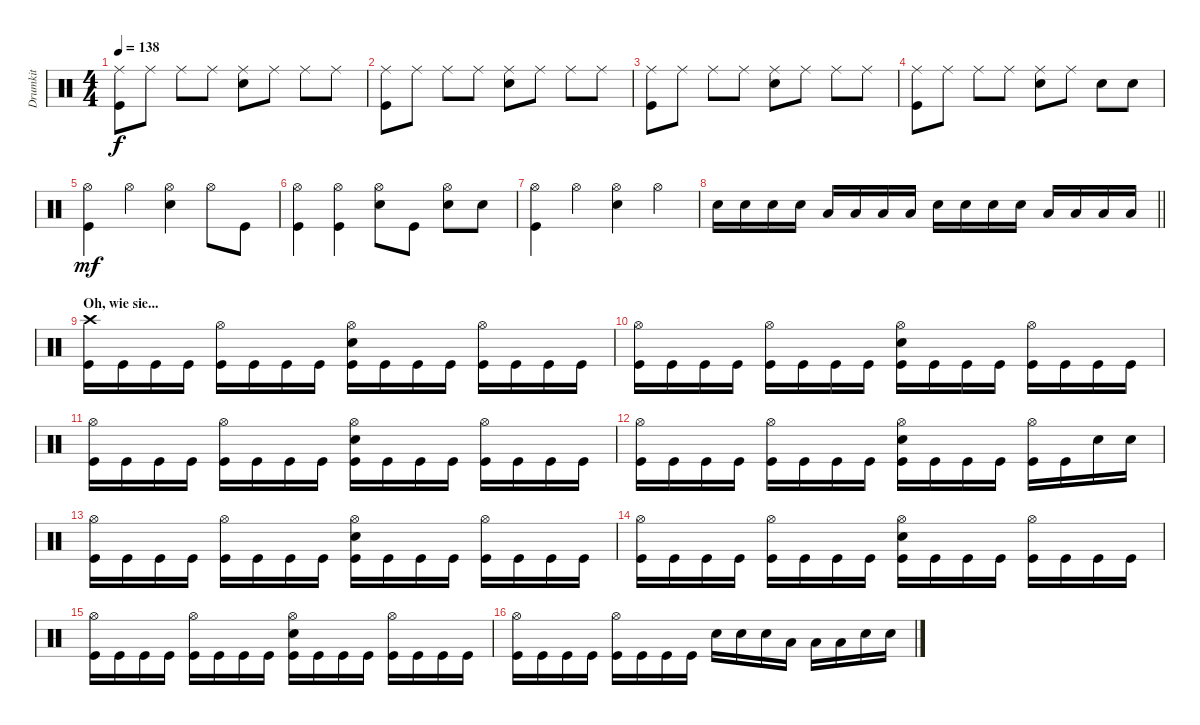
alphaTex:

\track ("Drumkit" "Drumkit") {instrument percussion}
\staff {score}
\articulation defaults
\ts (4 4)
\tempo 138
\clef neutral
\ks c
("Ride (middle)" "Kick (hit)").8{dy f} "Ride (middle)".8 "Ride (middle)".8 "Ride (middle)".8 ("Ride (middle)" "Snare (hit) 2").8 "Ride (middle)".8 "Ride (middle)".8 "Ride (middle)".8 |
("Ride (middle)" "Kick (hit)").8 "Ride (middle)".8 "Ride (middle)".8 "Ride (middle)".8 ("Ride (middle)" "Snare (hit) 2").8 "Ride (middle)".8 "Ride (middle)".8 "Ride (middle)".8 |
("Ride (middle)" "Kick (hit)").8 "Ride (middle)".8 "Ride (middle)".8 "Ride (middle)".8 ("Ride (middle)" "Snare (hit) 2").8 "Ride (middle)".8 "Ride (middle)".8 "Ride (middle)".8 |
("Ride (middle)" "Kick (hit)").8 "Ride (middle)".8 "Ride (middle)".8 "Ride (middle)".8 ("Ride (middle)" "Snare (hit) 2").8 "Ride (middle)".8 "Snare (hit) 2".8 "Snare (hit) 2".8 |
("Hi-Hat (open)" "Kick (hit)").4{dy mf} "Hi-Hat (open)".4 ("Hi-Hat (open)" "Snare (hit) 2").4 "Hi-Hat (open)".8 "Kick (hit)".8 |
("Hi-Hat (open)" "Kick (hit)").4 ("Hi-Hat (open)" "Kick (hit)").4 ("Hi-Hat (open)" "Snare (hit) 2").8 "Kick (hit)".8 ("Hi-Hat (open)" "Snare (hit) 2").8 "Snare (hit) 2".8 |
("Hi-Hat (open)" "Kick (hit)").4 "Hi-Hat (open)".4 ("Hi-Hat (open)" "Snare (hit) 2").4 "Hi-Hat (open)".4 |
\barLineRight lightlight "Snare (hit) 2".16 "Snare (hit) 2".16 "Snare (hit) 2".16 "Snare (hit) 2".16 "Low Tom (hit)".16 "Low Tom (hit)".16 "Low Tom (hit)".16 "Low Tom (hit)".16 "Snare (hit) 2".16 "Snare (hit) 2".16 "Snare (hit) 2".16 "Snare (hit) 2".16 "Low Tom (hit)".16 "Low Tom (hit)".16 "Low Tom (hit)".16 "Low Tom (hit)".16
|
\section ("" "Oh, wie sie...")
("Crash high (hit)" "Kick (hit)").16 "Kick (hit)".16 "Kick (hit)".16 "Kick (hit)".16 ("Hi-Hat (open)" "Kick (hit)").16 "Kick (hit)".16 "Kick (hit)".16 "Kick (hit)".16 ("Hi-Hat (open)" "Snare (hit) 2" "Kick (hit)").16 "Kick (hit)".16 "Kick (hit)".16 "Kick (hit)".16 ("Hi-Hat (open)" "Kick (hit)").16 "Kick (hit)".16 "Kick (hit)".16 "Kick (hit)".16 |
("Hi-Hat (open)" "Kick (hit)").16 "Kick (hit)".16 "Kick (hit)".16 "Kick (hit)".16 ("Hi-Hat (open)" "Kick (hit)").16 "Kick (hit)".16 "Kick (hit)".16 "Kick (hit)".16 ("Hi-Hat (open)" "Snare (hit) 2" "Kick (hit)").16 "Kick (hit)".16 "Kick (hit)".16 "Kick (hit)".16 ("Hi-Hat (open)" "Kick (hit)").16 "Kick (hit)".16 "Kick (hit)".16 "Kick (hit)".16 |
("Hi-Hat (open)" "Kick (hit)").16 "Kick (hit)".16 "Kick (hit)".16 "Kick (hit)".16 ("Hi-Hat (open)" "Kick (hit)").16 "Kick (hit)".16 "Kick (hit)".16 "Kick (hit)".16 ("Hi-Hat (open)" "Snare (hit) 2" "Kick (hit)").16 "Kick (hit)".16 "Kick (hit)".16 "Kick (hit)".16 ("Hi-Hat (open)" "Kick (hit)").16 "Kick (hit)".16 "Kick (hit)".16 "Kick (hit)".16 |
("Hi-Hat (open)" "Kick (hit)").16 "Kick (hit)".16 "Kick (hit)".16 "Kick (hit)".16 ("Hi-Hat (open)" "Kick (hit)").16 "Kick (hit)".16 "Kick (hit)".16 "Kick (hit)".16 ("Hi-Hat (open)" "Snare (hit) 2" "Kick (hit)").16 "Kick (hit)".16 "Kick (hit)".16 "Kick (hit)".16 ("Hi-Hat (open)" "Kick (hit)").16 "Kick (hit)".16 "Snare (hit) 2".16 "Snare (hit) 2".16 |
("Hi-Hat (open)" "Kick (hit)").16 "Kick (hit)".16 "Kick (hit)".16 "Kick (hit)".16 ("Hi-Hat (open)" "Kick (hit)").16 "Kick (hit)".16 "Kick (hit)".16 "Kick (hit)".16 ("Hi-Hat (open)" "Snare (hit) 2" "Kick (hit)").16 "Kick (hit)".16 "Kick (hit)".16 "Kick (hit)".16 ("Hi-Hat (open)" "Kick (hit)").16 "Kick (hit)".16 "Kick (hit)".16 "Kick (hit)".16 |
("Hi-Hat (open)" "Kick (hit)").16 "Kick (hit)".16 "Kick (hit)".16 "Kick (hit)".16 ("Hi-Hat (open)" "Kick (hit)").16 "Kick (hit)".16 "Kick (hit)".16 "Kick (hit)".16 ("Hi-Hat (open)" "Snare (hit) 2" "Kick (hit)").16 "Kick (hit)".16 "Kick (hit)".16 "Kick (hit)".16 ("Hi-Hat (open)" "Kick (hit)").16 "Kick (hit)".16 "Kick (hit)".16 "Kick (hit)".16 |
("Hi-Hat (open)" "Kick (hit)").16 "Kick (hit)".16 "Kick (hit)".16 "Kick (hit)".16 ("Hi-Hat (open)" "Kick (hit)").16 "Kick (hit)".16 "Kick (hit)".16 "Kick (hit)".16 ("Hi-Hat (open)" "Snare (hit) 2" "Kick (hit)").16 "Kick (hit)".16 "Kick (hit)".16 "Kick (hit)".16 ("Hi-Hat (open)" "Kick (hit)").16 "Kick (hit)".16 "Kick (hit)".16 "Kick (hit)".16 |
("Hi-Hat (open)" "Kick (hit)").16 "Kick (hit)".16 "Kick (hit)".16 "Kick (hit)".16 ("Hi-Hat (open)" "Kick (hit)").16 "Kick (hit)".16 "Kick (hit)".16 "Kick (hit)".16 "Snare (hit) 2".16 "Snare (hit) 2".16 "Snare (hit) 2".16 "Low Tom (hit)".16 "Low Tom (hit)".16 "Low Tom (hit)".16 "Snare (hit) 2".16 "Snare (hit) 2".16
